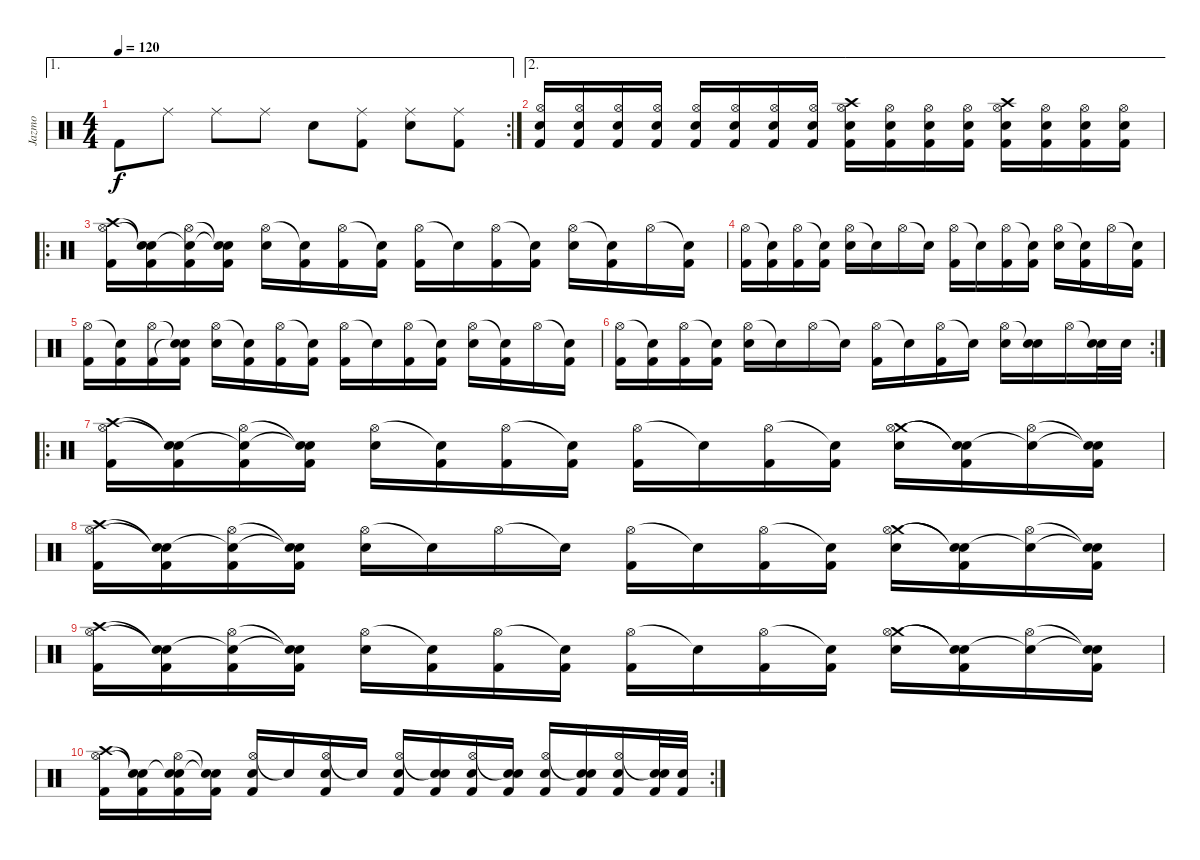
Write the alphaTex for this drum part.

\track ("Jazmo" "Jazmo") {instrument percussion}
\staff {score}
\articulation defaults
\ae 1
\rc 2
\ts (4 4)
\tempo 120
\clef neutral
\ks c "Kick (hit) 2".8{dy f} "Ride (middle)".8 "Ride (middle)".8 "Ride (middle)".8 "Snare (hit) 2".8
("Ride (middle)" "Kick (hit) 2").8 ("Ride (middle)" "Snare (hit) 2").8 ("Ride (middle)" "Kick (hit) 2").8 |
\ae 2
("Hi-Hat (open)" "Kick (hit) 2" "Electric Snare (hit)").16 ("Hi-Hat (open)" "Kick (hit) 2" "Electric Snare (hit)").16 ("Hi-Hat (open)" "Kick (hit) 2" "Electric Snare (hit)").16 ("Hi-Hat (open)" "Kick (hit) 2" "Electric Snare (hit)").16 ("Hi-Hat (open)" "Kick (hit) 2" "Electric Snare (hit)").16 ("Hi-Hat (open)" "Kick (hit) 2" "Electric Snare (hit)").16 ("Hi-Hat (open)" "Kick (hit) 2" "Electric Snare (hit)").16 ("Hi-Hat (open)" "Kick (hit) 2" "Electric Snare (hit)").16 ("Crash high (hit)" "Hi-Hat (open)" "Kick (hit) 2" "Electric Snare (hit)").16 ("Hi-Hat (open)" "Kick (hit) 2" "Electric Snare (hit)").16 ("Hi-Hat (open)" "Kick (hit) 2" "Electric Snare (hit)").16 ("Hi-Hat (open)" "Kick (hit) 2" "Electric Snare (hit)").16 ("Crash high (hit)" "Hi-Hat (open)" "Kick (hit) 2" "Electric Snare (hit)").16 ("Hi-Hat (open)" "Kick (hit) 2" "Electric Snare (hit)").16 ("Hi-Hat (open)" "Kick (hit) 2" "Electric Snare (hit)").16 ("Hi-Hat (open)" "Kick (hit) 2" "Electric Snare (hit)").16 |
\ro
("Crash high (hit)" "Hi-Hat (open)" "Kick (hit) 2").16 ("Snare (hit)"{t} "Snare (hit)"{t} "Kick (hit) 2").16 ("Snare (hit)"{t} "Hi-Hat (open)" "Kick (hit) 2").16 ("Snare (hit)"{t} "Snare (hit)"{t} "Kick (hit) 2").16 ("Hi-Hat (open)" "Electric Snare (hit)").16 ("Snare (hit)"{t} "Kick (hit) 2").16 ("Hi-Hat (open)" "Kick (hit) 2").16 ("Snare (hit)"{t} "Kick (hit) 2").16 ("Hi-Hat (open)" "Kick (hit) 2").16 "Snare (hit)"{t}.16 ("Hi-Hat (open)" "Kick (hit) 2").16 ("Snare (hit)"{t} "Kick (hit) 2").16 ("Hi-Hat (open)" "Electric Snare (hit)").16 ("Snare (hit)"{t} "Kick (hit) 2").16 "Hi-Hat (open)".16 ("Snare (hit)"{t} "Kick (hit) 2").16 |
("Hi-Hat (open)" "Kick (hit) 2").16 ("Snare (hit)"{t} "Kick (hit) 2").16 ("Hi-Hat (open)" "Kick (hit) 2").16 ("Snare (hit)"{t} "Kick (hit) 2").16 ("Hi-Hat (open)" "Electric Snare (hit)").16 "Snare (hit)"{t}.16 "Hi-Hat (open)".16 "Snare (hit)"{t}.16 ("Hi-Hat (open)" "Kick (hit) 2").16 "Snare (hit)"{t}.16 ("Hi-Hat (open)" "Kick (hit) 2").16 ("Snare (hit)"{t} "Kick (hit) 2").16 ("Hi-Hat (open)" "Electric Snare (hit)").16 ("Snare (hit)"{t} "Kick (hit) 2").16 "Hi-Hat (open)".16 ("Snare (hit)"{t} "Kick (hit) 2").16 |
("Hi-Hat (open)" "Kick (hit) 2").16 ("Snare (hit)"{t} "Kick (hit) 2").16 ("Hi-Hat (open)" "Kick (hit) 2").16 ("Snare (hit)"{t} "Snare (hit)"{t} "Kick (hit) 2").16 ("Hi-Hat (open)" "Electric Snare (hit)").16 ("Snare (hit)"{t} "Kick (hit) 2").16 ("Hi-Hat (open)" "Kick (hit) 2").16 ("Snare (hit)"{t} "Kick (hit) 2").16 ("Hi-Hat (open)" "Kick (hit) 2").16 "Snare (hit)"{t}.16 ("Hi-Hat (open)" "Kick (hit) 2").16 ("Snare (hit)"{t} "Kick (hit) 2").16 ("Hi-Hat (open)" "Electric Snare (hit)").16 ("Snare (hit)"{t} "Kick (hit) 2").16 "Hi-Hat (open)".16 ("Snare (hit)"{t} "Kick (hit) 2").16 |
\rc 2
("Hi-Hat (open)" "Kick (hit) 2").16 ("Snare (hit)"{t} "Kick (hit) 2").16 ("Hi-Hat (open)" "Kick (hit) 2").16 ("Snare (hit)"{t} "Kick (hit) 2").16 ("Hi-Hat (open)" "Electric Snare (hit)").16 "Snare (hit)"{t}.16 "Hi-Hat (open)".16 "Snare (hit)"{t}.16 ("Hi-Hat (open)" "Kick (hit) 2").16 "Snare (hit)"{t}.16 ("Hi-Hat (open)" "Kick (hit) 2").16 "Snare (hit)"{t}.16 ("Hi-Hat (open)" "Electric Snare (hit)").16 ("Snare (hit)"{t} "Electric Snare (hit)").16 "Hi-Hat (open)".16 ("Snare (hit)"{t} "Electric Snare (hit)").32 "Electric Snare (hit)".32 |
\ro
("Crash high (hit)" "Hi-Hat (open)" "Kick (hit) 2").16 ("Snare (hit)"{t} "Snare (hit)"{t} "Kick (hit) 2").16 ("Snare (hit)"{t} "Hi-Hat (open)" "Kick (hit) 2").16 ("Snare (hit)"{t} "Snare (hit)"{t} "Kick (hit) 2").16 ("Hi-Hat (open)" "Electric Snare (hit)").16 ("Snare (hit)"{t} "Kick (hit) 2").16 ("Hi-Hat (open)" "Kick (hit) 2").16 ("Snare (hit)"{t} "Kick (hit) 2").16 ("Hi-Hat (open)" "Kick (hit) 2").16 "Snare (hit)"{t}.16 ("Hi-Hat (open)" "Kick (hit) 2").16 ("Snare (hit)"{t} "Kick (hit) 2").16 ("Crash medium (hit)" "Hi-Hat (open)" "Electric Snare (hit)").16 ("Snare (hit)"{t} "Snare (hit)"{t} "Kick (hit) 2").16 ("Snare (hit)"{t} "Hi-Hat (open)").16 ("Snare (hit)"{t} "Snare (hit)"{t} "Kick (hit) 2").16 |
("Crash high (hit)" "Hi-Hat (open)" "Kick (hit) 2").16 ("Snare (hit)"{t} "Snare (hit)"{t} "Kick (hit) 2").16 ("Snare (hit)"{t} "Hi-Hat (open)" "Kick (hit) 2").16 ("Snare (hit)"{t} "Snare (hit)"{t} "Kick (hit) 2").16 ("Hi-Hat (open)" "Electric Snare (hit)").16 "Snare (hit)"{t}.16 "Hi-Hat (open)".16 "Snare (hit)"{t}.16 ("Hi-Hat (open)" "Kick (hit) 2").16 "Snare (hit)"{t}.16 ("Hi-Hat (open)" "Kick (hit) 2").16 ("Snare (hit)"{t} "Kick (hit) 2").16 ("Crash medium (hit)" "Hi-Hat (open)" "Electric Snare (hit)").16 ("Snare (hit)"{t} "Snare (hit)"{t} "Kick (hit) 2").16 ("Snare (hit)"{t} "Hi-Hat (open)").16 ("Snare (hit)"{t} "Snare (hit)"{t} "Kick (hit) 2").16 |
("Crash high (hit)" "Hi-Hat (open)" "Kick (hit) 2").16 ("Snare (hit)"{t} "Snare (hit)"{t} "Kick (hit) 2").16 ("Snare (hit)"{t} "Hi-Hat (open)" "Kick (hit) 2").16 ("Snare (hit)"{t} "Snare (hit)"{t} "Kick (hit) 2").16 ("Hi-Hat (open)" "Electric Snare (hit)").16 ("Snare (hit)"{t} "Kick (hit) 2").16 ("Hi-Hat (open)" "Kick (hit) 2").16 ("Snare (hit)"{t} "Kick (hit) 2").16 ("Hi-Hat (open)" "Kick (hit) 2").16 "Snare (hit)"{t}.16 ("Hi-Hat (open)" "Kick (hit) 2").16 ("Snare (hit)"{t} "Kick (hit) 2").16 ("Crash medium (hit)" "Hi-Hat (open)" "Electric Snare (hit)").16 ("Snare (hit)"{t} "Snare (hit)"{t} "Kick (hit) 2").16 ("Snare (hit)"{t} "Hi-Hat (open)").16 ("Snare (hit)"{t} "Snare (hit)"{t} "Kick (hit) 2").16 |
\rc 2
("Crash high (hit)" "Hi-Hat (open)" "Kick (hit) 2").16 ("Snare (hit)"{t} "Snare (hit)"{t} "Kick (hit) 2").16 ("Snare (hit)"{t} "Hi-Hat (open)" "Kick (hit) 2" "Electric Snare (hit)").16 ("Snare (hit)"{t} "Snare (hit)"{t} "Kick (hit) 2").16 ("Hi-Hat (open)" "Kick (hit) 2" "Electric Snare (hit)").16 "Snare (hit)"{t}.16 ("Hi-Hat (open)" "Kick (hit) 2" "Electric Snare (hit)").16 "Snare (hit)"{t}.16 ("Hi-Hat (open)" "Kick (hit) 2" "Electric Snare (hit)").16 ("Snare (hit)"{t} "Kick (hit) 2" "Electric Snare (hit)").16 ("Hi-Hat (open)" "Kick (hit) 2" "Electric Snare (hit)").16 ("Snare (hit)"{t} "Kick (hit) 2" "Electric Snare (hit)").16 ("Hi-Hat (open)" "Kick (hit) 2" "Electric Snare (hit)").16 ("Snare (hit)"{t} "Kick (hit) 2" "Electric Snare (hit)").16 ("Hi-Hat (open)" "Kick (hit) 2" "Electric Snare (hit)").16 ("Snare (hit)"{t} "Kick (hit) 2" "Electric Snare (hit)").32 ("Kick (hit) 2" "Electric Snare (hit)").32
